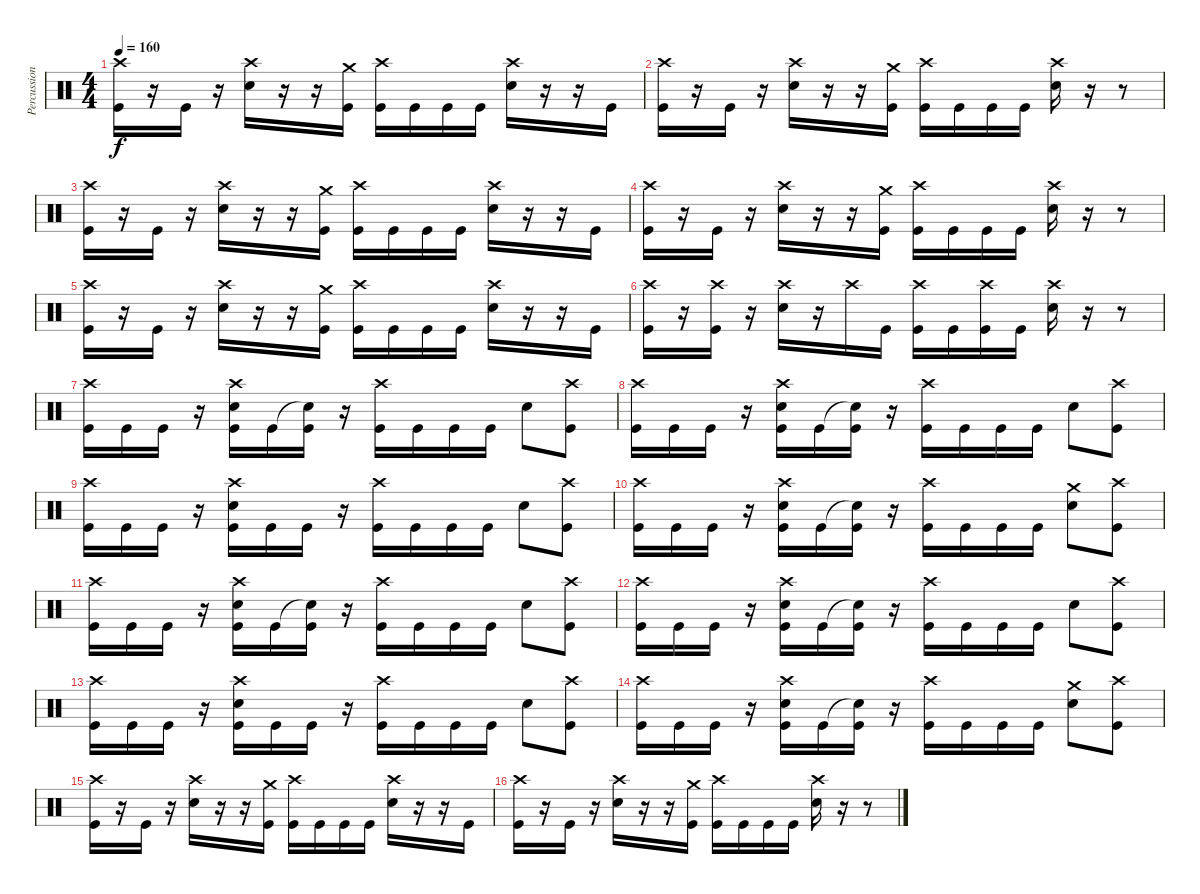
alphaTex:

\track ("Percussion" "Percussion") {instrument percussion}
\staff {score}
\articulation defaults
\ts (4 4)
\tempo 160
\clef neutral
\ks c
("Crash high (hit)" "Kick (hit)").16{dy f} r.16 "Kick (hit)".16 r.16 ("Crash high (hit)" "Snare (hit) 2").16 r.16 r.16 ("Crash medium (hit)" "Kick (hit)").16 ("Crash high (hit)" "Kick (hit)").16 "Kick (hit)".16 "Kick (hit)".16 "Kick (hit)".16 ("Crash high (hit)" "Snare (hit) 2").16 r.16 r.16 "Kick (hit)".16 |
("Crash high (hit)" "Kick (hit)").16 r.16 "Kick (hit)".16 r.16 ("Crash high (hit)" "Snare (hit) 2").16 r.16 r.16 ("Crash medium (hit)" "Kick (hit)").16 ("Crash high (hit)" "Kick (hit)").16 "Kick (hit)".16 "Kick (hit)".16 "Kick (hit)".16 ("Crash high (hit)" "Snare (hit) 2").16 r.16 r.8 |
("Crash high (hit)" "Kick (hit)").16 r.16 "Kick (hit)".16 r.16 ("Crash high (hit)" "Snare (hit) 2").16 r.16 r.16 ("Crash medium (hit)" "Kick (hit)").16 ("Crash high (hit)" "Kick (hit)").16 "Kick (hit)".16 "Kick (hit)".16 "Kick (hit)".16 ("Crash high (hit)" "Snare (hit) 2").16 r.16 r.16 "Kick (hit)".16 |
("Crash high (hit)" "Kick (hit)").16 r.16 "Kick (hit)".16 r.16 ("Crash high (hit)" "Snare (hit) 2").16 r.16 r.16 ("Crash medium (hit)" "Kick (hit)").16 ("Crash high (hit)" "Kick (hit)").16 "Kick (hit)".16 "Kick (hit)".16 "Kick (hit)".16 ("Crash high (hit)" "Snare (hit) 2").16 r.16 r.8 |
("Crash high (hit)" "Kick (hit)").16 r.16 "Kick (hit)".16 r.16 ("Crash high (hit)" "Snare (hit) 2").16 r.16 r.16 ("Crash medium (hit)" "Kick (hit)").16 ("Crash high (hit)" "Kick (hit)").16 "Kick (hit)".16 "Kick (hit)".16 "Kick (hit)".16 ("Crash high (hit)" "Snare (hit) 2").16 r.16 r.16 "Kick (hit)".16 |
("Crash high (hit)" "Kick (hit)").16 r.16 ("Crash high (hit)" "Kick (hit)").16 r.16 ("Crash high (hit)" "Snare (hit) 2").16 r.16 "Crash high (hit)".16 "Kick (hit)".16 ("Crash high (hit)" "Kick (hit)").16 "Kick (hit)".16 ("Crash high (hit)" "Kick (hit)").16 "Kick (hit)".16 ("Crash high (hit)" "Snare (hit) 2").16 r.16 r.8 |
("Crash high (hit)" "Kick (hit)").16 "Kick (hit)".16 "Kick (hit)".16 r.16 ("Crash high (hit)" "Snare (hit) 2" "Kick (hit)").16 "Kick (hit)".16 ("Snare (hit)"{t} "Kick (hit)").16 r.16 ("Crash high (hit)" "Kick (hit)").16 "Kick (hit)".16 "Kick (hit)".16 "Kick (hit)".16 "Snare (hit) 2".8 ("Crash high (hit)" "Kick (hit)").8 |
("Crash high (hit)" "Kick (hit)").16 "Kick (hit)".16 "Kick (hit)".16 r.16 ("Crash high (hit)" "Snare (hit) 2" "Kick (hit)").16 "Kick (hit)".16 ("Snare (hit)"{t} "Kick (hit)").16 r.16 ("Crash high (hit)" "Kick (hit)").16 "Kick (hit)".16 "Kick (hit)".16 "Kick (hit)".16 "Snare (hit) 2".8 ("Crash high (hit)" "Kick (hit)").8 |
("Crash high (hit)" "Kick (hit)").16 "Kick (hit)".16 "Kick (hit)".16 r.16 ("Crash high (hit)" "Snare (hit) 2" "Kick (hit)").16 "Kick (hit)".16 "Kick (hit)".16 r.16 ("Crash high (hit)" "Kick (hit)").16 "Kick (hit)".16 "Kick (hit)".16 "Kick (hit)".16 "Snare (hit) 2".8 ("Crash high (hit)" "Kick (hit)").8 |
("Crash high (hit)" "Kick (hit)").16 "Kick (hit)".16 "Kick (hit)".16 r.16 ("Crash high (hit)" "Snare (hit) 2" "Kick (hit)").16 "Kick (hit)".16 ("Snare (hit)"{t} "Kick (hit)").16 r.16 ("Crash high (hit)" "Kick (hit)").16 "Kick (hit)".16 "Kick (hit)".16 "Kick (hit)".16 ("Crash medium (hit)" "Snare (hit) 2").8 ("Crash high (hit)" "Kick (hit)").8 |
("Crash high (hit)" "Kick (hit)").16 "Kick (hit)".16 "Kick (hit)".16 r.16 ("Crash high (hit)" "Snare (hit) 2" "Kick (hit)").16 "Kick (hit)".16 ("Snare (hit)"{t} "Kick (hit)").16 r.16 ("Crash high (hit)" "Kick (hit)").16 "Kick (hit)".16 "Kick (hit)".16 "Kick (hit)".16 "Snare (hit) 2".8 ("Crash high (hit)" "Kick (hit)").8 |
("Crash high (hit)" "Kick (hit)").16 "Kick (hit)".16 "Kick (hit)".16 r.16 ("Crash high (hit)" "Snare (hit) 2" "Kick (hit)").16 "Kick (hit)".16 ("Snare (hit)"{t} "Kick (hit)").16 r.16 ("Crash high (hit)" "Kick (hit)").16 "Kick (hit)".16 "Kick (hit)".16 "Kick (hit)".16 "Snare (hit) 2".8 ("Crash high (hit)" "Kick (hit)").8 |
("Crash high (hit)" "Kick (hit)").16 "Kick (hit)".16 "Kick (hit)".16 r.16 ("Crash high (hit)" "Snare (hit) 2" "Kick (hit)").16 "Kick (hit)".16 "Kick (hit)".16 r.16 ("Crash high (hit)" "Kick (hit)").16 "Kick (hit)".16 "Kick (hit)".16 "Kick (hit)".16 "Snare (hit) 2".8 ("Crash high (hit)" "Kick (hit)").8 |
("Crash high (hit)" "Kick (hit)").16 "Kick (hit)".16 "Kick (hit)".16 r.16 ("Crash high (hit)" "Snare (hit) 2" "Kick (hit)").16 "Kick (hit)".16 ("Snare (hit)"{t} "Kick (hit)").16 r.16 ("Crash high (hit)" "Kick (hit)").16 "Kick (hit)".16 "Kick (hit)".16 "Kick (hit)".16 ("Crash medium (hit)" "Snare (hit) 2").8 ("Crash high (hit)" "Kick (hit)").8 |
("Crash high (hit)" "Kick (hit)").16 r.16 "Kick (hit)".16 r.16 ("Crash high (hit)" "Snare (hit) 2").16 r.16 r.16 ("Crash medium (hit)" "Kick (hit)").16 ("Crash high (hit)" "Kick (hit)").16 "Kick (hit)".16 "Kick (hit)".16 "Kick (hit)".16 ("Crash high (hit)" "Snare (hit) 2").16 r.16 r.16 "Kick (hit)".16 |
("Crash high (hit)" "Kick (hit)").16 r.16 "Kick (hit)".16 r.16 ("Crash high (hit)" "Snare (hit) 2").16 r.16 r.16 ("Crash medium (hit)" "Kick (hit)").16 ("Crash high (hit)" "Kick (hit)").16 "Kick (hit)".16 "Kick (hit)".16 "Kick (hit)".16 ("Crash high (hit)" "Snare (hit) 2").16 r.16 r.8
